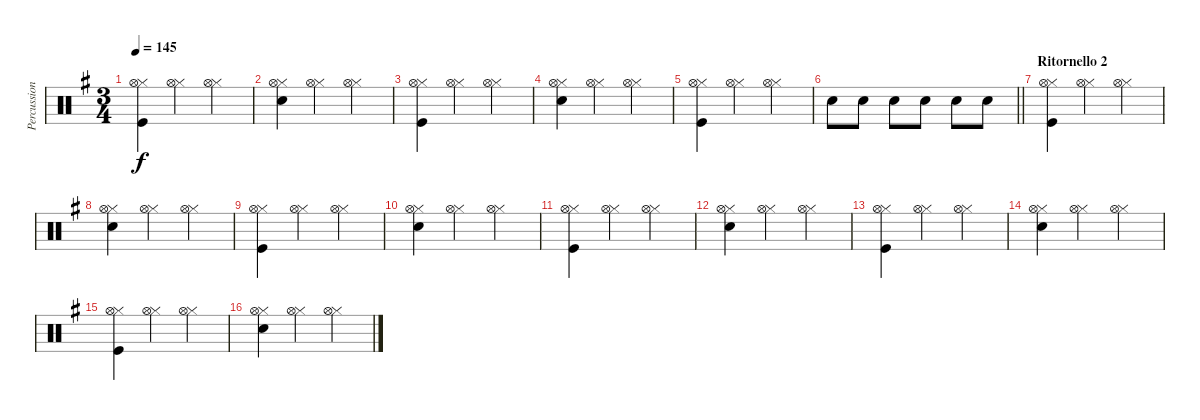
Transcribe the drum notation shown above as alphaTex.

\track ("Percussioni" "Percussion") {instrument percussion}
\staff {score}
\articulation defaults
\ts (3 4)
\tempo 145
\clef neutral
\ks g
("Hi-Hat (closed)" "Kick (hit)" "Hi-Hat (open)").4{dy f} ("Hi-Hat (closed)" "Hi-Hat (open)").4 ("Hi-Hat (closed)" "Hi-Hat (open)").4 |
("Hi-Hat (closed)" "Snare (hit) 2" "Hi-Hat (open)").4 ("Hi-Hat (closed)" "Hi-Hat (open)").4 ("Hi-Hat (closed)" "Hi-Hat (open)").4 |
("Hi-Hat (closed)" "Kick (hit)" "Hi-Hat (open)").4 ("Hi-Hat (closed)" "Hi-Hat (open)").4 ("Hi-Hat (closed)" "Hi-Hat (open)").4 |
("Hi-Hat (closed)" "Snare (hit) 2" "Hi-Hat (open)").4 ("Hi-Hat (closed)" "Hi-Hat (open)").4 ("Hi-Hat (closed)" "Hi-Hat (open)").4 |
("Hi-Hat (closed)" "Kick (hit)" "Hi-Hat (open)").4 ("Hi-Hat (closed)" "Hi-Hat (open)").4 ("Hi-Hat (closed)" "Hi-Hat (open)").4 |
\barLineRight lightlight "Snare (hit) 2".8 "Snare (hit) 2".8 "Snare (hit) 2".8 "Snare (hit) 2".8 "Snare (hit) 2".8 "Snare (hit) 2".8
|
\section ("" "Ritornello 2")
("Hi-Hat (closed)" "Kick (hit)" "Hi-Hat (open)").4 ("Hi-Hat (closed)" "Hi-Hat (open)").4 ("Hi-Hat (closed)" "Hi-Hat (open)").4 |
("Hi-Hat (closed)" "Snare (hit) 2" "Hi-Hat (open)").4 ("Hi-Hat (closed)" "Hi-Hat (open)").4 ("Hi-Hat (closed)" "Hi-Hat (open)").4 |
("Hi-Hat (closed)" "Kick (hit)" "Hi-Hat (open)").4 ("Hi-Hat (closed)" "Hi-Hat (open)").4 ("Hi-Hat (closed)" "Hi-Hat (open)").4 |
("Hi-Hat (closed)" "Snare (hit) 2" "Hi-Hat (open)").4 ("Hi-Hat (closed)" "Hi-Hat (open)").4 ("Hi-Hat (closed)" "Hi-Hat (open)").4 |
("Hi-Hat (closed)" "Kick (hit)" "Hi-Hat (open)").4 ("Hi-Hat (closed)" "Hi-Hat (open)").4 ("Hi-Hat (closed)" "Hi-Hat (open)").4 |
("Hi-Hat (closed)" "Snare (hit) 2" "Hi-Hat (open)").4 ("Hi-Hat (closed)" "Hi-Hat (open)").4 ("Hi-Hat (closed)" "Hi-Hat (open)").4 |
("Hi-Hat (closed)" "Kick (hit)" "Hi-Hat (open)").4 ("Hi-Hat (closed)" "Hi-Hat (open)").4 ("Hi-Hat (closed)" "Hi-Hat (open)").4 |
("Hi-Hat (closed)" "Snare (hit) 2" "Hi-Hat (open)").4 ("Hi-Hat (closed)" "Hi-Hat (open)").4 ("Hi-Hat (closed)" "Hi-Hat (open)").4 |
("Hi-Hat (closed)" "Kick (hit)" "Hi-Hat (open)").4 ("Hi-Hat (closed)" "Hi-Hat (open)").4 ("Hi-Hat (closed)" "Hi-Hat (open)").4 |
("Hi-Hat (closed)" "Snare (hit) 2" "Hi-Hat (open)").4 ("Hi-Hat (closed)" "Hi-Hat (open)").4 ("Hi-Hat (closed)" "Hi-Hat (open)").4
